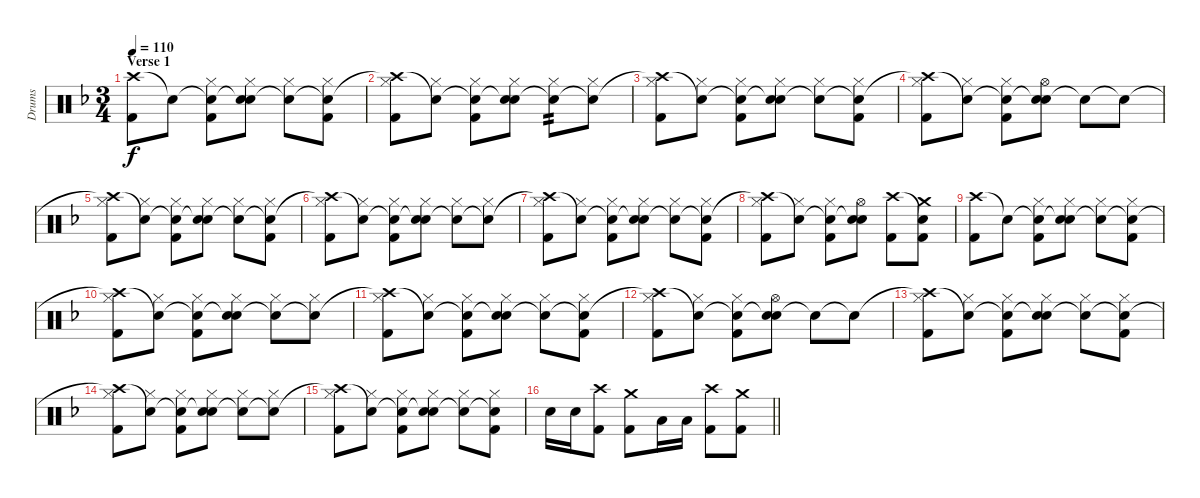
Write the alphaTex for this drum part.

\track ("Drums" "Drums") {instrument percussion}
\staff {score}
\articulation defaults
\ts (3 4)
\section ("" "Verse 1")
\tempo 110
\clef neutral
\ks dminor
("Crash high (hit)" "Kick (hit) 2").8{dy f} "Snare (hit)"{t}.8 ("Snare (hit)"{t} "Hi-Hat (closed)" "Kick (hit) 2").8 ("Snare (hit)"{t} "Hi-Hat (closed)" "Snare (hit) 2").8 ("Snare (hit)"{t} "Hi-Hat (closed)").8 ("Snare (hit)"{t} "Hi-Hat (closed)" "Kick (hit) 2").8 |
("Crash high (hit)"{t} "Hi-Hat (closed)" "Kick (hit) 2").8 ("Snare (hit)"{t} "Hi-Hat (closed)").8 ("Snare (hit)"{t} "Hi-Hat (closed)" "Kick (hit) 2").8 ("Snare (hit)"{t} "Hi-Hat (closed)" "Snare (hit) 2").8 ("Snare (hit)"{t} "Hi-Hat (closed)").8{tp 2} ("Snare (hit)"{t} "Hi-Hat (closed)").8 |
("Crash high (hit)"{t} "Hi-Hat (closed)" "Kick (hit) 2").8 ("Snare (hit)"{t} "Hi-Hat (closed)").8 ("Snare (hit)"{t} "Hi-Hat (closed)" "Kick (hit) 2").8 ("Snare (hit)"{t} "Hi-Hat (closed)" "Snare (hit) 2").8 ("Snare (hit)"{t} "Hi-Hat (closed)").8 ("Snare (hit)"{t} "Hi-Hat (closed)" "Kick (hit) 2").8 |
("Crash high (hit)"{t} "Hi-Hat (closed)" "Kick (hit) 2").8 ("Snare (hit)"{t} "Hi-Hat (closed)").8 ("Snare (hit)"{t} "Hi-Hat (closed)" "Kick (hit) 2").8 ("Snare (hit)"{t} "Hi-Hat (open)" "Snare (hit) 2").8 "Snare (hit)"{t}.8 "Snare (hit)"{t}.8 |
("Crash high (hit)"{t} "Hi-Hat (closed)" "Kick (hit) 2").8 ("Snare (hit)"{t} "Hi-Hat (closed)").8 ("Snare (hit)"{t} "Hi-Hat (closed)" "Kick (hit) 2").8 ("Snare (hit)"{t} "Hi-Hat (closed)" "Snare (hit) 2").8 ("Snare (hit)"{t} "Hi-Hat (closed)").8 ("Snare (hit)"{t} "Hi-Hat (closed)" "Kick (hit) 2").8 |
("Crash high (hit)"{t} "Hi-Hat (closed)" "Kick (hit) 2").8 ("Snare (hit)"{t} "Hi-Hat (closed)").8 ("Snare (hit)"{t} "Hi-Hat (closed)" "Kick (hit) 2").8 ("Snare (hit)"{t} "Hi-Hat (closed)" "Snare (hit) 2").8 ("Snare (hit)"{t} "Hi-Hat (closed)").8 ("Snare (hit)"{t} "Hi-Hat (closed)").8 |
("Crash high (hit)"{t} "Hi-Hat (closed)" "Kick (hit) 2").8 ("Snare (hit)"{t} "Hi-Hat (closed)").8 ("Snare (hit)"{t} "Hi-Hat (closed)" "Kick (hit) 2").8 ("Snare (hit)"{t} "Hi-Hat (closed)" "Snare (hit) 2").8 ("Snare (hit)"{t} "Hi-Hat (closed)").8 ("Snare (hit)"{t} "Hi-Hat (closed)" "Kick (hit) 2").8 |
("Crash high (hit)"{t} "Hi-Hat (closed)" "Kick (hit) 2").8 ("Snare (hit)"{t} "Hi-Hat (closed)").8 ("Snare (hit)"{t} "Hi-Hat (closed)" "Kick (hit) 2").8 ("Snare (hit)"{t} "Hi-Hat (open)" "Snare (hit) 2").8 ("Crash high (hit)" "Kick (hit) 2").8 ("Snare (hit)"{t} "Crash medium (hit)" "Kick (hit) 2").8 |
("Crash high (hit)" "Kick (hit) 2").8 "Snare (hit)"{t}.8 ("Snare (hit)"{t} "Hi-Hat (closed)" "Kick (hit) 2").8 ("Snare (hit)"{t} "Hi-Hat (closed)" "Snare (hit) 2").8 ("Snare (hit)"{t} "Hi-Hat (closed)").8 ("Snare (hit)"{t} "Hi-Hat (closed)" "Kick (hit) 2").8 |
("Crash high (hit)"{t} "Hi-Hat (closed)" "Kick (hit) 2").8 ("Snare (hit)"{t} "Hi-Hat (closed)").8 ("Snare (hit)"{t} "Hi-Hat (closed)" "Kick (hit) 2").8 ("Snare (hit)"{t} "Hi-Hat (closed)" "Snare (hit) 2").8 ("Snare (hit)"{t} "Hi-Hat (closed)").8 ("Snare (hit)"{t} "Hi-Hat (closed)").8 |
("Crash high (hit)"{t} "Hi-Hat (closed)" "Kick (hit) 2").8 ("Snare (hit)"{t} "Hi-Hat (closed)").8 ("Snare (hit)"{t} "Hi-Hat (closed)" "Kick (hit) 2").8 ("Snare (hit)"{t} "Hi-Hat (closed)" "Snare (hit) 2").8 ("Snare (hit)"{t} "Hi-Hat (closed)").8 ("Snare (hit)"{t} "Hi-Hat (closed)" "Kick (hit) 2").8 |
("Crash high (hit)"{t} "Hi-Hat (closed)" "Kick (hit) 2").8 ("Snare (hit)"{t} "Hi-Hat (closed)").8 ("Snare (hit)"{t} "Hi-Hat (closed)" "Kick (hit) 2").8 ("Snare (hit)"{t} "Hi-Hat (open)" "Snare (hit) 2").8 "Snare (hit)"{t}.8 "Snare (hit)"{t}.8 |
("Crash high (hit)"{t} "Hi-Hat (closed)" "Kick (hit) 2").8 ("Snare (hit)"{t} "Hi-Hat (closed)").8 ("Snare (hit)"{t} "Hi-Hat (closed)" "Kick (hit) 2").8 ("Snare (hit)"{t} "Hi-Hat (closed)" "Snare (hit) 2").8 ("Snare (hit)"{t} "Hi-Hat (closed)").8 ("Snare (hit)"{t} "Hi-Hat (closed)" "Kick (hit) 2").8 |
("Crash high (hit)"{t} "Hi-Hat (closed)" "Kick (hit) 2").8 ("Snare (hit)"{t} "Hi-Hat (closed)").8 ("Snare (hit)"{t} "Hi-Hat (closed)" "Kick (hit) 2").8 ("Snare (hit)"{t} "Hi-Hat (closed)" "Snare (hit) 2").8 ("Snare (hit)"{t} "Hi-Hat (closed)").8 ("Snare (hit)"{t} "Hi-Hat (closed)").8 |
("Crash high (hit)"{t} "Hi-Hat (closed)" "Kick (hit) 2").8 ("Snare (hit)"{t} "Hi-Hat (closed)").8 ("Snare (hit)"{t} "Hi-Hat (closed)" "Kick (hit) 2").8 ("Snare (hit)"{t} "Hi-Hat (closed)" "Snare (hit) 2").8 ("Snare (hit)"{t} "Hi-Hat (closed)").8 ("Snare (hit)"{t} "Hi-Hat (closed)" "Kick (hit) 2").8 |
\barLineRight lightlight "Snare (hit) 2".16 "Snare (hit) 2".16
("Crash high (hit)" "Kick (hit) 2").8 ("Crash medium (hit)" "Kick (hit) 2").8 "Low Tom (hit)".16 "Low Tom (hit)".16 ("Crash high (hit)" "Kick (hit) 2").8 ("Crash medium (hit)" "Kick (hit) 2").8
